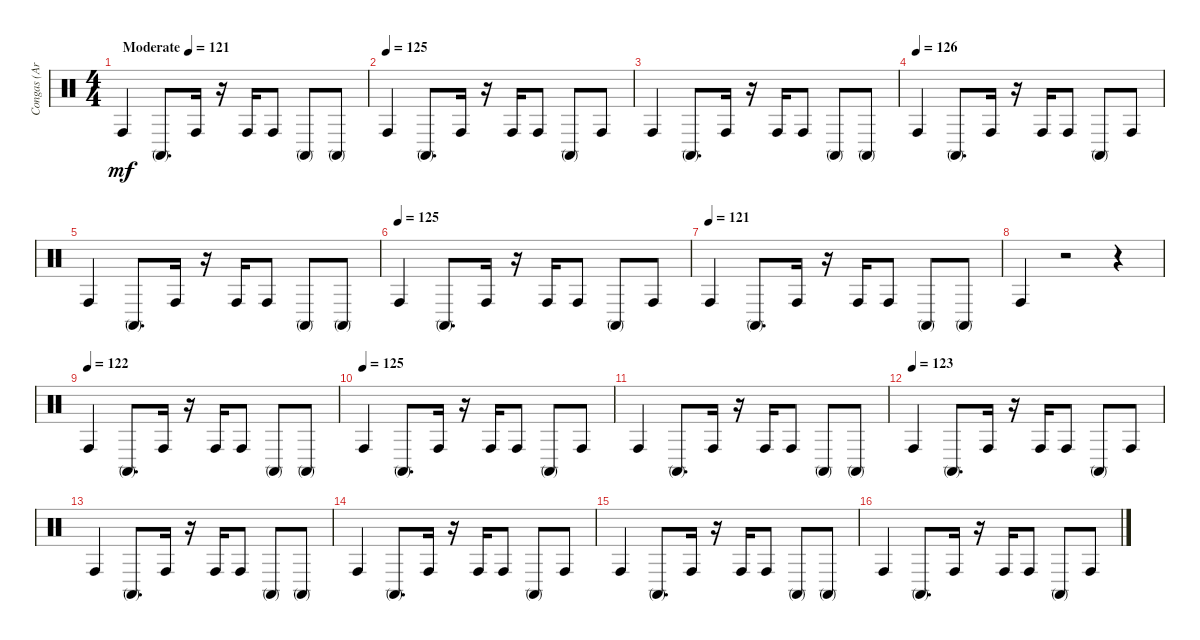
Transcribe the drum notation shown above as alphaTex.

\track ("Congas (Arthur Jenkins)" "Congas (Ar") {instrument percussion}
\staff {score}
\articulation defaults
\ts (4 4)
\tempo (121 "Moderate")
\clef neutral
\ks c "Conga high (hit)".4{dy mf} "Conga high (mute)".8{d} "Conga high (hit)".16
r.16 "Conga high (hit)".16 "Conga high (hit)".8 "Conga high (mute)".8 "Conga high (mute)".8 |
\tempo (125)
"Conga high (hit)".4 "Conga high (mute)".8{d} "Conga high (hit)".16 r.16 "Conga high (hit)".16 "Conga high (hit)".8 "Conga high (mute)".8 "Conga high (hit)".8 |
"Conga high (hit)".4 "Conga high (mute)".8{d} "Conga high (hit)".16 r.16 "Conga high (hit)".16 "Conga high (hit)".8 "Conga high (mute)".8 "Conga high (mute)".8 |
\tempo (126)
"Conga high (hit)".4 "Conga high (mute)".8{d} "Conga high (hit)".16 r.16 "Conga high (hit)".16 "Conga high (hit)".8 "Conga high (mute)".8 "Conga high (hit)".8 |
"Conga high (hit)".4 "Conga high (mute)".8{d} "Conga high (hit)".16 r.16 "Conga high (hit)".16 "Conga high (hit)".8 "Conga high (mute)".8 "Conga high (mute)".8 |
\tempo (125)
"Conga high (hit)".4 "Conga high (mute)".8{d} "Conga high (hit)".16 r.16 "Conga high (hit)".16 "Conga high (hit)".8 "Conga high (mute)".8 "Conga high (hit)".8 |
\tempo (121)
"Conga high (hit)".4 "Conga high (mute)".8{d} "Conga high (hit)".16 r.16 "Conga high (hit)".16 "Conga high (hit)".8 "Conga high (mute)".8 "Conga high (mute)".8 |
"Conga high (hit)".4 r.2 r.4 |
\tempo (122)
"Conga high (hit)".4 "Conga high (mute)".8{d} "Conga high (hit)".16 r.16 "Conga high (hit)".16 "Conga high (hit)".8 "Conga high (mute)".8 "Conga high (mute)".8 |
\tempo (125)
"Conga high (hit)".4 "Conga high (mute)".8{d} "Conga high (hit)".16 r.16 "Conga high (hit)".16 "Conga high (hit)".8 "Conga high (mute)".8 "Conga high (hit)".8 |
"Conga high (hit)".4 "Conga high (mute)".8{d} "Conga high (hit)".16 r.16 "Conga high (hit)".16 "Conga high (hit)".8 "Conga high (mute)".8 "Conga high (mute)".8 |
\tempo (123)
"Conga high (hit)".4 "Conga high (mute)".8{d} "Conga high (hit)".16 r.16 "Conga high (hit)".16 "Conga high (hit)".8 "Conga high (mute)".8 "Conga high (hit)".8 |
"Conga high (hit)".4 "Conga high (mute)".8{d} "Conga high (hit)".16 r.16 "Conga high (hit)".16 "Conga high (hit)".8 "Conga high (mute)".8 "Conga high (mute)".8 |
"Conga high (hit)".4 "Conga high (mute)".8{d} "Conga high (hit)".16 r.16 "Conga high (hit)".16 "Conga high (hit)".8 "Conga high (mute)".8 "Conga high (hit)".8 |
"Conga high (hit)".4 "Conga high (mute)".8{d} "Conga high (hit)".16 r.16 "Conga high (hit)".16 "Conga high (hit)".8 "Conga high (mute)".8 "Conga high (mute)".8 |
"Conga high (hit)".4 "Conga high (mute)".8{d} "Conga high (hit)".16 r.16 "Conga high (hit)".16 "Conga high (hit)".8 "Conga high (mute)".8 "Conga high (hit)".8
